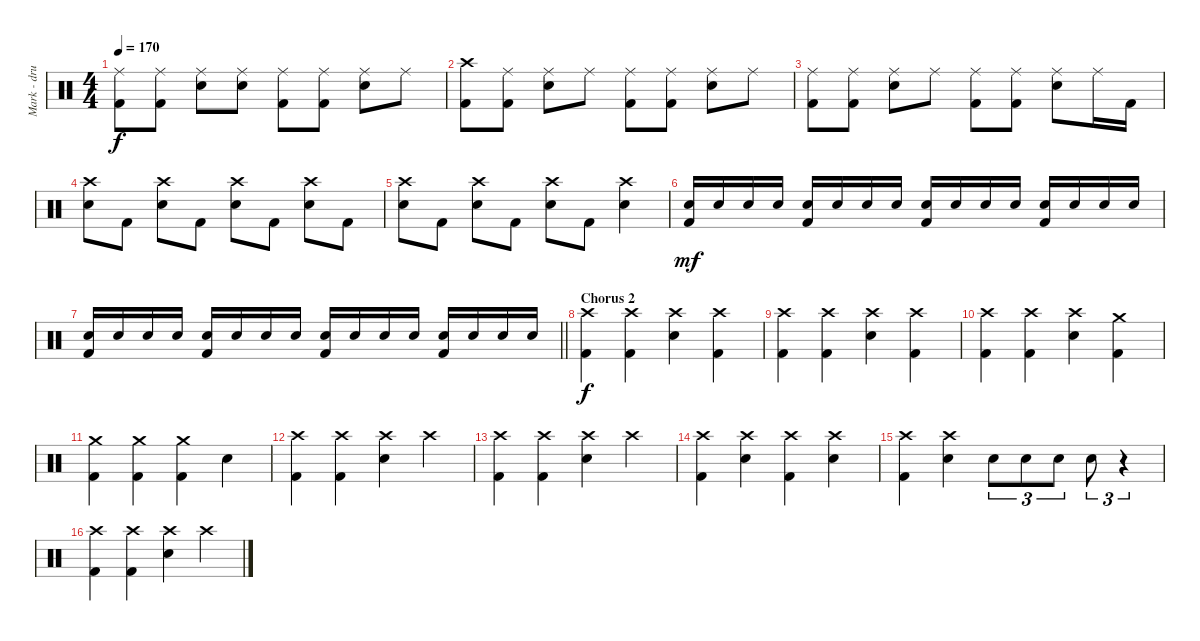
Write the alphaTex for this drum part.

\track ("Mark - drums" "Mark - dru") {instrument percussion}
\staff {score}
\articulation defaults
\ts (4 4)
\tempo 170
\clef neutral
\ks c
("Kick (hit) 2" "Ride (middle)").8{dy f} ("Kick (hit) 2" "Ride (middle)").8 ("Electric Snare (hit)" "Ride (middle)").8 ("Electric Snare (hit)" "Ride (middle)").8 ("Kick (hit) 2" "Ride (middle)").8 ("Kick (hit) 2" "Ride (middle)").8 ("Electric Snare (hit)" "Ride (middle)").8 "Ride (middle)".8 |
("Kick (hit) 2" "Crash high (hit)").8 ("Kick (hit) 2" "Ride (middle)").8 ("Electric Snare (hit)" "Ride (middle)").8 "Ride (middle)".8 ("Kick (hit) 2" "Ride (middle)").8 ("Kick (hit) 2" "Ride (middle)").8 ("Electric Snare (hit)" "Ride (middle)").8 "Ride (middle)".8 |
("Kick (hit) 2" "Ride (middle)").8 ("Kick (hit) 2" "Ride (middle)").8 ("Electric Snare (hit)" "Ride (middle)").8 "Ride (middle)".8 ("Kick (hit) 2" "Ride (middle)").8 ("Kick (hit) 2" "Ride (middle)").8 ("Electric Snare (hit)" "Ride (middle)").8 "Ride (middle)".16 "Kick (hit) 2".16 |
("Electric Snare (hit)" "Crash high (hit)").8 "Kick (hit) 2".8 ("Electric Snare (hit)" "Crash high (hit)").8 "Kick (hit) 2".8 ("Electric Snare (hit)" "Crash high (hit)").8 "Kick (hit) 2".8 ("Electric Snare (hit)" "Crash high (hit)").8 "Kick (hit) 2".8 |
("Electric Snare (hit)" "Crash high (hit)").8 "Kick (hit) 2".8 ("Electric Snare (hit)" "Crash high (hit)").8 "Kick (hit) 2".8 ("Electric Snare (hit)" "Crash high (hit)").8 "Kick (hit) 2".8 ("Electric Snare (hit)" "Crash high (hit)").4 |
("Kick (hit) 2" "Electric Snare (hit)").16{dy mf} "Electric Snare (hit)".16 "Electric Snare (hit)".16 "Electric Snare (hit)".16 ("Kick (hit) 2" "Electric Snare (hit)").16 "Electric Snare (hit)".16 "Electric Snare (hit)".16 "Electric Snare (hit)".16 ("Kick (hit) 2" "Electric Snare (hit)").16 "Electric Snare (hit)".16 "Electric Snare (hit)".16 "Electric Snare (hit)".16 ("Kick (hit) 2" "Electric Snare (hit)").16 "Electric Snare (hit)".16 "Electric Snare (hit)".16 "Electric Snare (hit)".16 |
\barLineRight lightlight
("Kick (hit) 2" "Electric Snare (hit)").16 "Electric Snare (hit)".16 "Electric Snare (hit)".16 "Electric Snare (hit)".16 ("Kick (hit) 2" "Electric Snare (hit)").16 "Electric Snare (hit)".16 "Electric Snare (hit)".16 "Electric Snare (hit)".16 ("Kick (hit) 2" "Electric Snare (hit)").16 "Electric Snare (hit)".16 "Electric Snare (hit)".16 "Electric Snare (hit)".16 ("Kick (hit) 2" "Electric Snare (hit)").16 "Electric Snare (hit)".16 "Electric Snare (hit)".16 "Electric Snare (hit)".16 |
\section ("" "Chorus 2")
("Kick (hit) 2" "Crash high (hit)").4{dy f} ("Kick (hit) 2" "Crash high (hit)").4 ("Electric Snare (hit)" "Crash high (hit)").4 ("Kick (hit) 2" "Crash high (hit)").4 |
("Kick (hit) 2" "Crash high (hit)").4 ("Kick (hit) 2" "Crash high (hit)").4 ("Electric Snare (hit)" "Crash high (hit)").4 ("Kick (hit) 2" "Crash high (hit)").4 |
("Kick (hit) 2" "Crash high (hit)").4 ("Kick (hit) 2" "Crash high (hit)").4 ("Electric Snare (hit)" "Crash high (hit)").4 ("Kick (hit) 2" "Crash medium (hit)").4 |
("Kick (hit) 2" "Crash medium (hit)").4 ("Kick (hit) 2" "Crash medium (hit)").4 ("Kick (hit) 2" "Crash medium (hit)").4 "Electric Snare (hit)".4 |
("Kick (hit) 2" "Crash high (hit)").4 ("Kick (hit) 2" "Crash high (hit)").4 ("Electric Snare (hit)" "Crash high (hit)").4 "Crash high (hit)".4 |
("Kick (hit) 2" "Crash high (hit)").4 ("Kick (hit) 2" "Crash high (hit)").4 ("Electric Snare (hit)" "Crash high (hit)").4 "Crash high (hit)".4 |
("Kick (hit) 2" "Crash high (hit)").4 ("Electric Snare (hit)" "Crash high (hit)").4 ("Kick (hit) 2" "Crash high (hit)").4 ("Electric Snare (hit)" "Crash high (hit)").4 |
("Kick (hit) 2" "Crash high (hit)").4 ("Electric Snare (hit)" "Crash high (hit)").4 "Electric Snare (hit)".8{tu (3 2)} "Electric Snare (hit)".8{tu (3 2)} "Electric Snare (hit)".8{tu (3 2)} "Electric Snare (hit)".8{tu (3 2)} r.4{tu (3 2)} |
("Kick (hit) 2" "Crash high (hit)").4 ("Kick (hit) 2" "Crash high (hit)").4 ("Electric Snare (hit)" "Crash high (hit)").4 "Crash high (hit)".4
